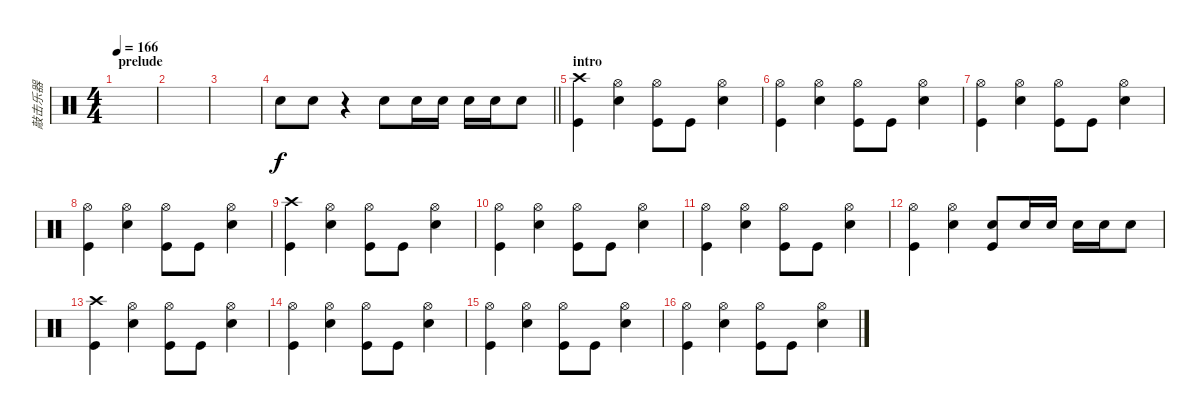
\track ("敲击乐器" "敲击乐器") {instrument percussion}
\staff {score}
\articulation defaults
\ts (4 4)
\section ("" "prelude")
\tempo 166
\clef neutral
\ks c
|
|
|
\barLineRight lightlight "Snare (hit) 2".8 "Snare (hit) 2".8
r.4 "Snare (hit) 2".8 "Snare (hit) 2".16 "Snare (hit) 2".16 "Snare (hit) 2".16 "Snare (hit) 2".16 "Snare (hit) 2".8 |
\section ("" "intro")
("Kick (hit)" "Crash high (hit)").4 ("Snare (hit) 2" "Hi-Hat (open)").4 ("Kick (hit)" "Hi-Hat (open)").8 "Kick (hit)".8 ("Snare (hit) 2" "Hi-Hat (open)").4 |
("Kick (hit)" "Hi-Hat (open)").4 ("Snare (hit) 2" "Hi-Hat (open)").4 ("Kick (hit)" "Hi-Hat (open)").8 "Kick (hit)".8 ("Snare (hit) 2" "Hi-Hat (open)").4 |
("Kick (hit)" "Hi-Hat (open)").4 ("Snare (hit) 2" "Hi-Hat (open)").4 ("Kick (hit)" "Hi-Hat (open)").8 "Kick (hit)".8 ("Snare (hit) 2" "Hi-Hat (open)").4 |
("Kick (hit)" "Hi-Hat (open)").4 ("Snare (hit) 2" "Hi-Hat (open)").4 ("Kick (hit)" "Hi-Hat (open)").8 "Kick (hit)".8 ("Snare (hit) 2" "Hi-Hat (open)").4 |
("Kick (hit)" "Crash high (hit)").4 ("Snare (hit) 2" "Hi-Hat (open)").4 ("Kick (hit)" "Hi-Hat (open)").8 "Kick (hit)".8 ("Snare (hit) 2" "Hi-Hat (open)").4 |
("Kick (hit)" "Hi-Hat (open)").4 ("Snare (hit) 2" "Hi-Hat (open)").4 ("Kick (hit)" "Hi-Hat (open)").8 "Kick (hit)".8 ("Snare (hit) 2" "Hi-Hat (open)").4 |
("Kick (hit)" "Hi-Hat (open)").4 ("Snare (hit) 2" "Hi-Hat (open)").4 ("Kick (hit)" "Hi-Hat (open)").8 "Kick (hit)".8 ("Snare (hit) 2" "Hi-Hat (open)").4 |
("Kick (hit)" "Hi-Hat (open)").4 ("Snare (hit) 2" "Hi-Hat (open)").4 ("Kick (hit)" "Snare (hit) 2").8 "Snare (hit) 2".16 "Snare (hit) 2".16 "Snare (hit) 2".16 "Snare (hit) 2".16 "Snare (hit) 2".8 |
("Kick (hit)" "Crash high (hit)").4 ("Snare (hit) 2" "Hi-Hat (open)").4 ("Kick (hit)" "Hi-Hat (open)").8 "Kick (hit)".8 ("Snare (hit) 2" "Hi-Hat (open)").4 |
("Kick (hit)" "Hi-Hat (open)").4 ("Snare (hit) 2" "Hi-Hat (open)").4 ("Kick (hit)" "Hi-Hat (open)").8 "Kick (hit)".8 ("Snare (hit) 2" "Hi-Hat (open)").4 |
("Kick (hit)" "Hi-Hat (open)").4 ("Snare (hit) 2" "Hi-Hat (open)").4 ("Kick (hit)" "Hi-Hat (open)").8 "Kick (hit)".8 ("Snare (hit) 2" "Hi-Hat (open)").4 |
("Kick (hit)" "Hi-Hat (open)").4 ("Snare (hit) 2" "Hi-Hat (open)").4 ("Kick (hit)" "Hi-Hat (open)").8 "Kick (hit)".8 ("Snare (hit) 2" "Hi-Hat (open)").4
